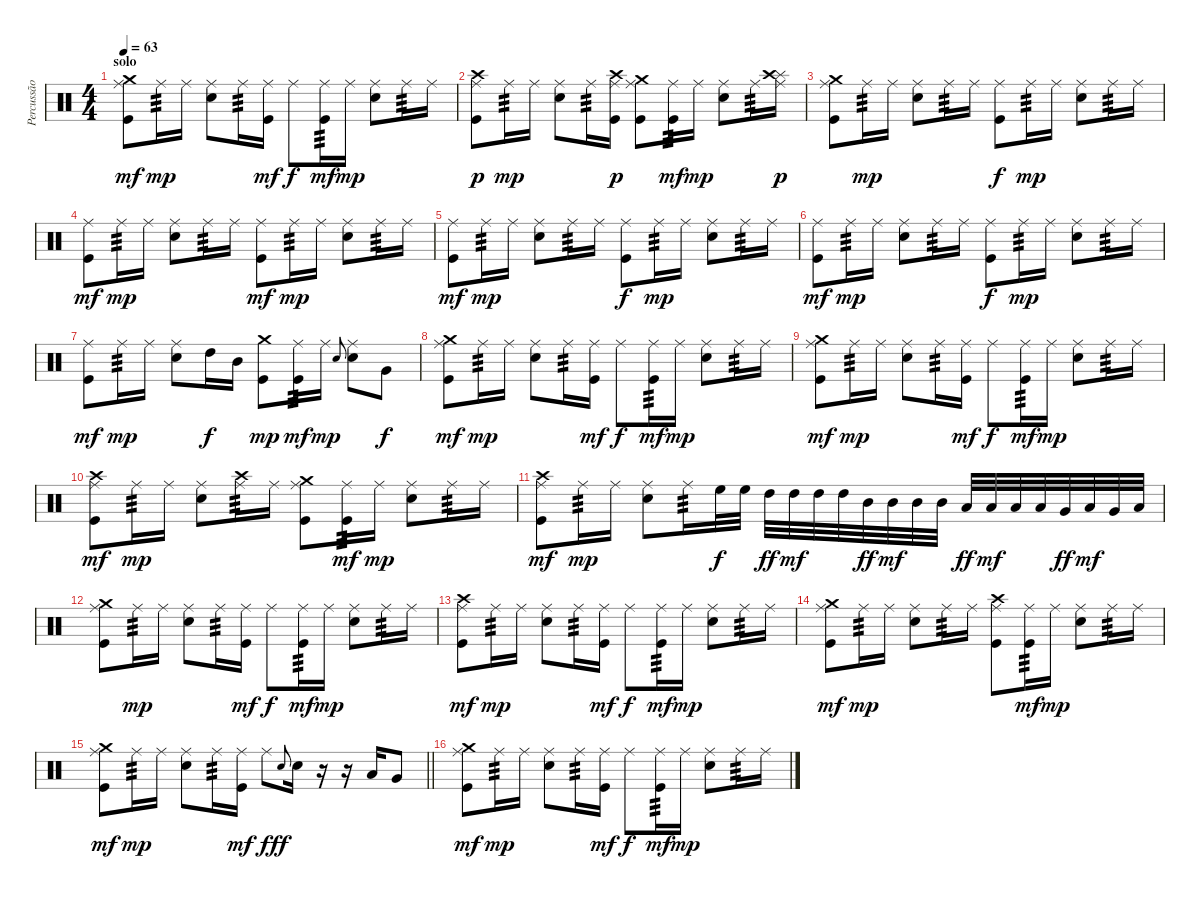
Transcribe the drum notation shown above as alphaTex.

\track ("Percussão" "Percussão") {instrument percussion}
\staff {score}
\articulation defaults
\ts (4 4)
\section ("" "solo")
\tempo 63
\clef neutral
\ks c
("Ride (middle)" "Crash medium (hit)" "Kick (hit)").8{dy mf} "Ride (middle)".16{tp 3 dy mp} "Ride (middle)".16 ("Ride (middle)" "Snare (hit) 2").8 "Ride (middle)".16{tp 3} ("Ride (middle)" "Kick (hit)").16{dy mf} "Ride (middle)".8{dy f} ("Ride (middle)" "Kick (hit)").16{tp 3 dy mf} "Ride (middle)".16{dy mp} ("Ride (middle)" "Snare (hit) 2").8 "Ride (middle)".16{tp 3} "Ride (middle)".16 |
("Ride (middle)" "Kick (hit)" "Crash high (hit)").8{dy p} "Ride (middle)".16{tp 3 dy mp} "Ride (middle)".16 ("Ride (middle)" "Snare (hit) 2").8 "Ride (middle)".16{tp 3} ("Ride (middle)" "Kick (hit)" "Crash high (hit)").16{dy p} ("Ride (middle)" "Kick (hit)" "Crash medium (hit)").8 ("Ride (middle)" "Kick (hit)").16{tp 3 dy mf} "Ride (middle)".16{dy mp} ("Ride (middle)" "Snare (hit) 2").8 "Ride (middle)".16{tp 3} ("Ride (middle)" "Splash (hit)" "Crash high (hit)").16{dy p} |
("Ride (middle)" "Kick (hit)" "Crash medium (hit)").8 "Ride (middle)".16{tp 3 dy mp} "Ride (middle)".16 ("Ride (middle)" "Snare (hit) 2").8 "Ride (middle)".16{tp 3} "Ride (middle)".16 ("Ride (middle)" "Kick (hit)").8{dy f} "Ride (middle)".16{tp 3 dy mp} "Ride (middle)".16 ("Ride (middle)" "Snare (hit) 2").8 "Ride (middle)".16{tp 3} "Ride (middle)".16 |
("Ride (middle)" "Kick (hit)").8{dy mf} "Ride (middle)".16{tp 3 dy mp} "Ride (middle)".16 ("Ride (middle)" "Snare (hit) 2").8 "Ride (middle)".16{tp 3} "Ride (middle)".16 ("Ride (middle)" "Kick (hit)").8{dy mf} "Ride (middle)".16{tp 3 dy mp} "Ride (middle)".16 ("Ride (middle)" "Snare (hit) 2").8 "Ride (middle)".16{tp 3} "Ride (middle)".16 |
("Ride (middle)" "Kick (hit)").8{dy mf} "Ride (middle)".16{tp 3 dy mp} "Ride (middle)".16 ("Ride (middle)" "Snare (hit) 2").8 "Ride (middle)".16{tp 3} "Ride (middle)".16 ("Ride (middle)" "Kick (hit)").8{dy f} "Ride (middle)".16{tp 3 dy mp} "Ride (middle)".16 ("Ride (middle)" "Snare (hit) 2").8 "Ride (middle)".16{tp 3} "Ride (middle)".16 |
("Ride (middle)" "Kick (hit)").8{dy mf} "Ride (middle)".16{tp 3 dy mp} "Ride (middle)".16 ("Ride (middle)" "Snare (hit) 2").8 "Ride (middle)".16{tp 3} "Ride (middle)".16 ("Ride (middle)" "Kick (hit)").8{dy f} "Ride (middle)".16{tp 3 dy mp} "Ride (middle)".16 ("Ride (middle)" "Snare (hit) 2").8 "Ride (middle)".16{tp 3} "Ride (middle)".16 |
("Ride (middle)" "Kick (hit)").8{dy mf} "Ride (middle)".16{tp 3 dy mp} "Ride (middle)".16 ("Ride (middle)" "Snare (hit) 2").8 "High Tom (hit)".16{dy f} "Mid Tom (hit)".16 ("Kick (hit)" "Crash medium (hit)").8{dy mp} ("Ride (middle)" "Kick (hit)").16{tp 3 dy mf} "Ride (middle)".16{dy mp} "Snare (hit) 2"{h x}.8{gr onbeat} ("Ride (middle)" "Snare (hit) 2").8 "Very Low Tom (hit)".8{dy f} |
("Ride (middle)" "Crash medium (hit)" "Kick (hit)").8{dy mf} "Ride (middle)".16{tp 3 dy mp} "Ride (middle)".16 ("Ride (middle)" "Snare (hit) 2").8 "Ride (middle)".16{tp 3} ("Ride (middle)" "Kick (hit)").16{dy mf} "Ride (middle)".8{dy f} ("Ride (middle)" "Kick (hit)").16{tp 3 dy mf} "Ride (middle)".16{dy mp} ("Ride (middle)" "Snare (hit) 2").8 "Ride (middle)".16{tp 3} "Ride (middle)".16 |
("Ride (middle)" "Crash medium (hit)" "Kick (hit)").8{dy mf} "Ride (middle)".16{tp 3 dy mp} "Ride (middle)".16 ("Ride (middle)" "Snare (hit) 2").8 "Ride (middle)".16{tp 3} ("Ride (middle)" "Kick (hit)").16{dy mf} "Ride (middle)".8{dy f} ("Ride (middle)" "Kick (hit)").16{tp 3 dy mf} "Ride (middle)".16{dy mp} ("Ride (middle)" "Snare (hit) 2").8 "Ride (middle)".16{tp 3} "Ride (middle)".16 |
("Ride (middle)" "Crash high (hit)" "Kick (hit)").8{dy mf} "Ride (middle)".16{tp 3 dy mp} "Ride (middle)".16 ("Ride (middle)" "Snare (hit) 2").8 ("Ride (middle)" "Crash high (hit)").16{tp 3} "Ride (middle)".16 ("Ride (middle)" "Crash medium (hit)" "Kick (hit)").8 ("Ride (middle)" "Kick (hit)").16{tp 3 dy mf} "Ride (middle)".16{dy mp} ("Ride (middle)" "Snare (hit) 2").8 "Ride (middle)".16{tp 3} "Ride (middle)".16 |
("Ride (middle)" "Crash high (hit)" "Kick (hit)").8{dy mf} "Ride (middle)".16{tp 3 dy mp} "Ride (middle)".16 ("Ride (middle)" "Snare (hit) 2").8 "Ride (middle)".16{tp 3} "High Floor Tom (hit)".32{dy f} "High Floor Tom (hit)".32 "High Tom (hit)".32{dy ff} "High Tom (hit)".32{dy mf} "High Tom (hit)".32 "High Tom (hit)".32 "Mid Tom (hit)".32{dy ff} "Mid Tom (hit)".32{dy mf} "Mid Tom (hit)".32 "Mid Tom (hit)".32 "Low Tom (hit)".32{dy ff} "Low Tom (hit)".32{dy mf} "Low Tom (hit)".32 "Low Tom (hit)".32 "Very Low Tom (hit)".32{dy ff} "Low Floor Tom (hit)".32{dy mf} "Very Low Tom (hit)".32 "Low Floor Tom (hit)".32 |
("Ride (middle)" "Crash medium (hit)" "Kick (hit)").8 "Ride (middle)".16{tp 3 dy mp} "Ride (middle)".16 ("Ride (middle)" "Snare (hit) 2").8 "Ride (middle)".16{tp 3} ("Ride (middle)" "Kick (hit)").16{dy mf} "Ride (middle)".8{dy f} ("Ride (middle)" "Kick (hit)").16{tp 3 dy mf} "Ride (middle)".16{dy mp} ("Ride (middle)" "Snare (hit) 2").8 "Ride (middle)".16{tp 3} "Ride (middle)".16 |
("Ride (middle)" "Crash high (hit)" "Kick (hit)").8{dy mf} "Ride (middle)".16{tp 3 dy mp} "Ride (middle)".16 ("Ride (middle)" "Snare (hit) 2").8 "Ride (middle)".16{tp 3} ("Ride (middle)" "Kick (hit)").16{dy mf} "Ride (middle)".8{dy f} ("Ride (middle)" "Kick (hit)").16{tp 3 dy mf} "Ride (middle)".16{dy mp} ("Ride (middle)" "Snare (hit) 2").8 "Ride (middle)".16{tp 3} "Ride (middle)".16 |
("Ride (middle)" "Crash medium (hit)" "Kick (hit)").8{dy mf} "Ride (middle)".16{tp 3 dy mp} "Ride (middle)".16 ("Ride (middle)" "Snare (hit) 2").8 "Ride (middle)".16{tp 3} "Ride (middle)".16 ("Ride (middle)" "Crash high (hit)" "Kick (hit)").8 ("Ride (middle)" "Kick (hit)").16{tp 3 dy mf} "Ride (middle)".16{dy mp} ("Ride (middle)" "Snare (hit) 2").8 "Ride (middle)".16{tp 3} "Ride (middle)".16 |
\barLineRight lightlight
("Ride (middle)" "Crash medium (hit)" "Kick (hit)").8{dy mf} "Ride (middle)".16{tp 3 dy mp} "Ride (middle)".16 ("Ride (middle)" "Snare (hit) 2").8 "Ride (middle)".16{tp 3} ("Ride (middle)" "Kick (hit)").16{dy mf} "Ride (middle)".8{dy f} "Snare (hit) 2"{h x}.8{gr onbeat dy ff} "Snare (hit) 2".16 r.16 r.16 "Low Tom (hit)".16 "Very Low Tom (hit)".8 |
("Ride (middle)" "Crash medium (hit)" "Kick (hit)").8{dy mf} "Ride (middle)".16{tp 3 dy mp} "Ride (middle)".16 ("Ride (middle)" "Snare (hit) 2").8 "Ride (middle)".16{tp 3} ("Ride (middle)" "Kick (hit)").16{dy mf} "Ride (middle)".8{dy f} ("Ride (middle)" "Kick (hit)").16{tp 3 dy mf} "Ride (middle)".16{dy mp} ("Ride (middle)" "Snare (hit) 2").8 "Ride (middle)".16{tp 3} "Ride (middle)".16
